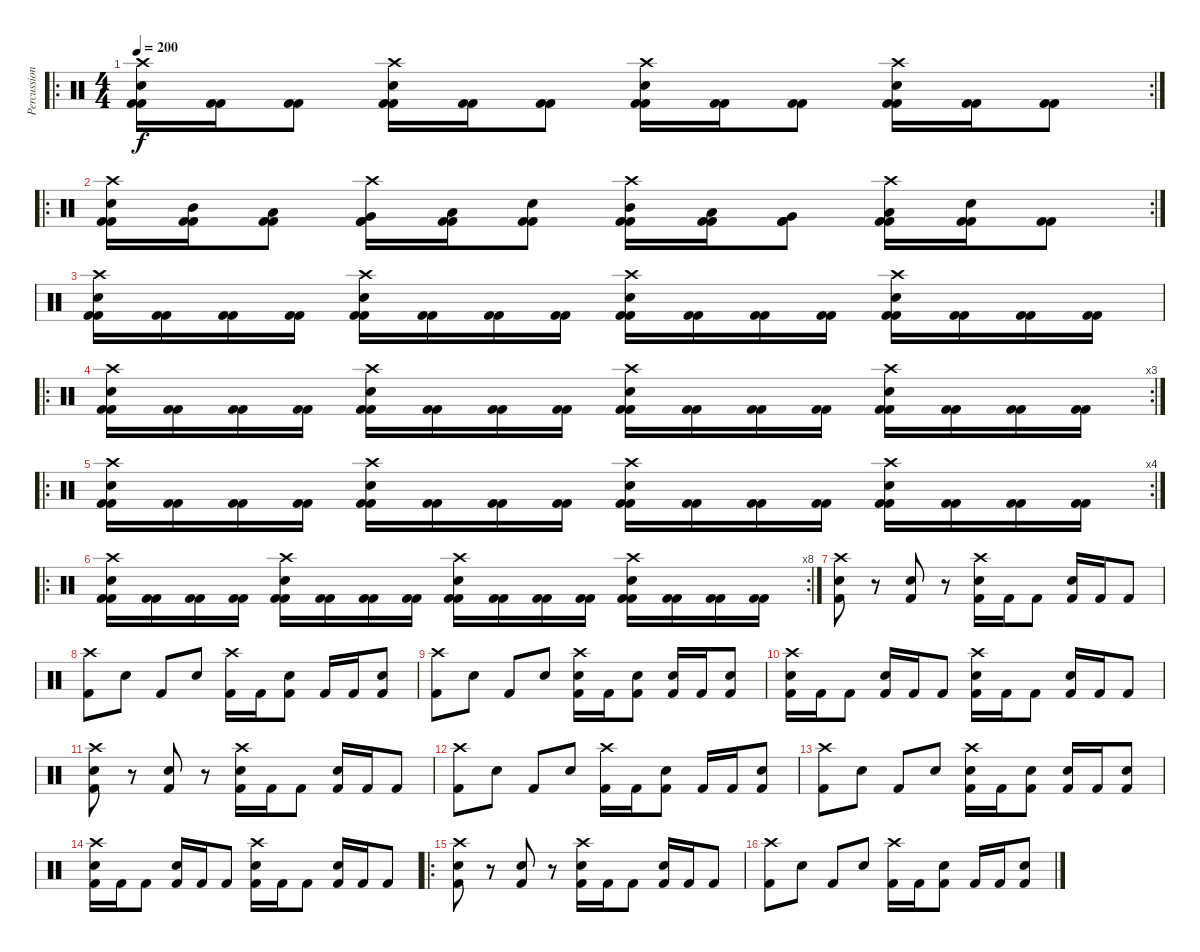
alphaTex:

\track ("Percussion" "Percussion") {instrument percussion}
\staff {score}
\articulation defaults
\ro
\rc 2
\ts (4 4)
\tempo 200
\clef neutral
\ks c
("Crash high (hit)" "Electric Snare (hit)" "Kick (hit) 2" "Kick (hit) 2").16{dy f} ("Kick (hit) 2" "Kick (hit) 2").16 ("Kick (hit) 2" "Kick (hit) 2").8 ("Crash high (hit)" "Electric Snare (hit)" "Kick (hit) 2" "Kick (hit) 2").16 ("Kick (hit) 2" "Kick (hit) 2").16 ("Kick (hit) 2" "Kick (hit) 2").8 ("Crash high (hit)" "Electric Snare (hit)" "Kick (hit) 2" "Kick (hit) 2").16 ("Kick (hit) 2" "Kick (hit) 2").16 ("Kick (hit) 2" "Kick (hit) 2").8 ("Crash high (hit)" "Electric Snare (hit)" "Kick (hit) 2" "Kick (hit) 2").16 ("Kick (hit) 2" "Kick (hit) 2").16 ("Kick (hit) 2" "Kick (hit) 2").8 |
\ro
\rc 2
("Crash high (hit)" "Electric Snare (hit)" "Kick (hit) 2" "Kick (hit) 2").16 ("Mid Tom (hit)" "Kick (hit) 2" "Kick (hit) 2").16 ("Low Tom (hit)" "Kick (hit) 2" "Kick (hit) 2").8 ("Crash high (hit)" "Very Low Tom (hit)" "Kick (hit) 2" "Kick (hit) 2").16 ("Low Floor Tom (hit)" "Kick (hit) 2" "Kick (hit) 2").16 ("Electric Snare (hit)" "Kick (hit) 2" "Kick (hit) 2").8 ("Crash high (hit)" "Mid Tom (hit)" "Kick (hit) 2" "Kick (hit) 2").16 ("Low Tom (hit)" "Kick (hit) 2" "Kick (hit) 2").16 ("Very Low Tom (hit)" "Kick (hit) 2" "Kick (hit) 2").8 ("Crash high (hit)" "Low Floor Tom (hit)" "Kick (hit) 2" "Kick (hit) 2").16 ("Electric Snare (hit)" "Kick (hit) 2" "Kick (hit) 2").16 ("Kick (hit) 2" "Kick (hit) 2").8 |
("Crash high (hit)" "Electric Snare (hit)" "Kick (hit) 2" "Kick (hit) 2").16 ("Kick (hit) 2" "Kick (hit) 2").16 ("Kick (hit) 2" "Kick (hit) 2").16 ("Kick (hit) 2" "Kick (hit) 2").16 ("Crash high (hit)" "Electric Snare (hit)" "Kick (hit) 2" "Kick (hit) 2").16 ("Kick (hit) 2" "Kick (hit) 2").16 ("Kick (hit) 2" "Kick (hit) 2").16 ("Kick (hit) 2" "Kick (hit) 2").16 ("Crash high (hit)" "Electric Snare (hit)" "Kick (hit) 2" "Kick (hit) 2").16 ("Kick (hit) 2" "Kick (hit) 2").16 ("Kick (hit) 2" "Kick (hit) 2").16 ("Kick (hit) 2" "Kick (hit) 2").16 ("Crash high (hit)" "Electric Snare (hit)" "Kick (hit) 2" "Kick (hit) 2").16 ("Kick (hit) 2" "Kick (hit) 2").16 ("Kick (hit) 2" "Kick (hit) 2").16 ("Kick (hit) 2" "Kick (hit) 2").16 |
\ro
\rc 3
("Crash high (hit)" "Electric Snare (hit)" "Kick (hit) 2" "Kick (hit) 2").16 ("Kick (hit) 2" "Kick (hit) 2").16 ("Kick (hit) 2" "Kick (hit) 2").16 ("Kick (hit) 2" "Kick (hit) 2").16 ("Crash high (hit)" "Electric Snare (hit)" "Kick (hit) 2" "Kick (hit) 2").16 ("Kick (hit) 2" "Kick (hit) 2").16 ("Kick (hit) 2" "Kick (hit) 2").16 ("Kick (hit) 2" "Kick (hit) 2").16 ("Crash high (hit)" "Electric Snare (hit)" "Kick (hit) 2" "Kick (hit) 2").16 ("Kick (hit) 2" "Kick (hit) 2").16 ("Kick (hit) 2" "Kick (hit) 2").16 ("Kick (hit) 2" "Kick (hit) 2").16 ("Crash high (hit)" "Electric Snare (hit)" "Kick (hit) 2" "Kick (hit) 2").16 ("Kick (hit) 2" "Kick (hit) 2").16 ("Kick (hit) 2" "Kick (hit) 2").16 ("Kick (hit) 2" "Kick (hit) 2").16 |
\ro
\rc 4
("Crash high (hit)" "Electric Snare (hit)" "Kick (hit) 2" "Kick (hit) 2").16 ("Kick (hit) 2" "Kick (hit) 2").16 ("Kick (hit) 2" "Kick (hit) 2").16 ("Kick (hit) 2" "Kick (hit) 2").16 ("Crash high (hit)" "Electric Snare (hit)" "Kick (hit) 2" "Kick (hit) 2").16 ("Kick (hit) 2" "Kick (hit) 2").16 ("Kick (hit) 2" "Kick (hit) 2").16 ("Kick (hit) 2" "Kick (hit) 2").16 ("Crash high (hit)" "Electric Snare (hit)" "Kick (hit) 2" "Kick (hit) 2").16 ("Kick (hit) 2" "Kick (hit) 2").16 ("Kick (hit) 2" "Kick (hit) 2").16 ("Kick (hit) 2" "Kick (hit) 2").16 ("Crash high (hit)" "Electric Snare (hit)" "Kick (hit) 2" "Kick (hit) 2").16 ("Kick (hit) 2" "Kick (hit) 2").16 ("Kick (hit) 2" "Kick (hit) 2").16 ("Kick (hit) 2" "Kick (hit) 2").16 |
\ro
\rc 8
("Crash high (hit)" "Electric Snare (hit)" "Kick (hit) 2" "Kick (hit) 2").16 ("Kick (hit) 2" "Kick (hit) 2").16 ("Kick (hit) 2" "Kick (hit) 2").16 ("Kick (hit) 2" "Kick (hit) 2").16 ("Crash high (hit)" "Electric Snare (hit)" "Kick (hit) 2" "Kick (hit) 2").16 ("Kick (hit) 2" "Kick (hit) 2").16 ("Kick (hit) 2" "Kick (hit) 2").16 ("Kick (hit) 2" "Kick (hit) 2").16 ("Crash high (hit)" "Electric Snare (hit)" "Kick (hit) 2" "Kick (hit) 2").16 ("Kick (hit) 2" "Kick (hit) 2").16 ("Kick (hit) 2" "Kick (hit) 2").16 ("Kick (hit) 2" "Kick (hit) 2").16 ("Crash high (hit)" "Electric Snare (hit)" "Kick (hit) 2" "Kick (hit) 2").16 ("Kick (hit) 2" "Kick (hit) 2").16 ("Kick (hit) 2" "Kick (hit) 2").16 ("Kick (hit) 2" "Kick (hit) 2").16 |
("Crash high (hit)" "Electric Snare (hit)" "Kick (hit) 2").8 r.8 ("Electric Snare (hit)" "Kick (hit) 2").8 r.8 ("Crash high (hit)" "Electric Snare (hit)" "Kick (hit) 2").16 "Kick (hit) 2".16 "Kick (hit) 2".8 ("Electric Snare (hit)" "Kick (hit) 2").16 "Kick (hit) 2".16 "Kick (hit) 2".8 |
("Crash high (hit)" "Kick (hit) 2").8 "Electric Snare (hit)".8 "Kick (hit) 2".8 "Electric Snare (hit)".8 ("Crash high (hit)" "Kick (hit) 2").16 "Kick (hit) 2".16 ("Electric Snare (hit)" "Kick (hit) 2").8 "Kick (hit) 2".16 "Kick (hit) 2".16 ("Electric Snare (hit)" "Kick (hit) 2").8 |
("Crash high (hit)" "Kick (hit) 2").8 "Electric Snare (hit)".8 "Kick (hit) 2".8 "Electric Snare (hit)".8 ("Crash high (hit)" "Electric Snare (hit)" "Kick (hit) 2").16 "Kick (hit) 2".16 ("Electric Snare (hit)" "Kick (hit) 2").8 ("Electric Snare (hit)" "Kick (hit) 2").16 "Kick (hit) 2".16 ("Electric Snare (hit)" "Kick (hit) 2").8 |
("Crash high (hit)" "Electric Snare (hit)" "Kick (hit) 2").16 "Kick (hit) 2".16 "Kick (hit) 2".8 ("Electric Snare (hit)" "Kick (hit) 2").16 "Kick (hit) 2".16 "Kick (hit) 2".8 ("Crash high (hit)" "Electric Snare (hit)" "Kick (hit) 2").16 "Kick (hit) 2".16 "Kick (hit) 2".8 ("Electric Snare (hit)" "Kick (hit) 2").16 "Kick (hit) 2".16 "Kick (hit) 2".8 |
("Crash high (hit)" "Electric Snare (hit)" "Kick (hit) 2").8 r.8 ("Electric Snare (hit)" "Kick (hit) 2").8 r.8 ("Crash high (hit)" "Electric Snare (hit)" "Kick (hit) 2").16 "Kick (hit) 2".16 "Kick (hit) 2".8 ("Electric Snare (hit)" "Kick (hit) 2").16 "Kick (hit) 2".16 "Kick (hit) 2".8 |
("Crash high (hit)" "Kick (hit) 2").8 "Electric Snare (hit)".8 "Kick (hit) 2".8 "Electric Snare (hit)".8 ("Crash high (hit)" "Kick (hit) 2").16 "Kick (hit) 2".16 ("Electric Snare (hit)" "Kick (hit) 2").8 "Kick (hit) 2".16 "Kick (hit) 2".16 ("Electric Snare (hit)" "Kick (hit) 2").8 |
("Crash high (hit)" "Kick (hit) 2").8 "Electric Snare (hit)".8 "Kick (hit) 2".8 "Electric Snare (hit)".8 ("Crash high (hit)" "Electric Snare (hit)" "Kick (hit) 2").16 "Kick (hit) 2".16 ("Electric Snare (hit)" "Kick (hit) 2").8 ("Electric Snare (hit)" "Kick (hit) 2").16 "Kick (hit) 2".16 ("Electric Snare (hit)" "Kick (hit) 2").8 |
("Crash high (hit)" "Electric Snare (hit)" "Kick (hit) 2").16 "Kick (hit) 2".16 "Kick (hit) 2".8 ("Electric Snare (hit)" "Kick (hit) 2").16 "Kick (hit) 2".16 "Kick (hit) 2".8 ("Crash high (hit)" "Electric Snare (hit)" "Kick (hit) 2").16 "Kick (hit) 2".16 "Kick (hit) 2".8 ("Electric Snare (hit)" "Kick (hit) 2").16 "Kick (hit) 2".16 "Kick (hit) 2".8 |
\ro
("Crash high (hit)" "Electric Snare (hit)" "Kick (hit) 2").8 r.8 ("Electric Snare (hit)" "Kick (hit) 2").8 r.8 ("Crash high (hit)" "Electric Snare (hit)" "Kick (hit) 2").16 "Kick (hit) 2".16 "Kick (hit) 2".8 ("Electric Snare (hit)" "Kick (hit) 2").16 "Kick (hit) 2".16 "Kick (hit) 2".8 |
("Crash high (hit)" "Kick (hit) 2").8 "Electric Snare (hit)".8 "Kick (hit) 2".8 "Electric Snare (hit)".8 ("Crash high (hit)" "Kick (hit) 2").16 "Kick (hit) 2".16 ("Electric Snare (hit)" "Kick (hit) 2").8 "Kick (hit) 2".16 "Kick (hit) 2".16 ("Electric Snare (hit)" "Kick (hit) 2").8
